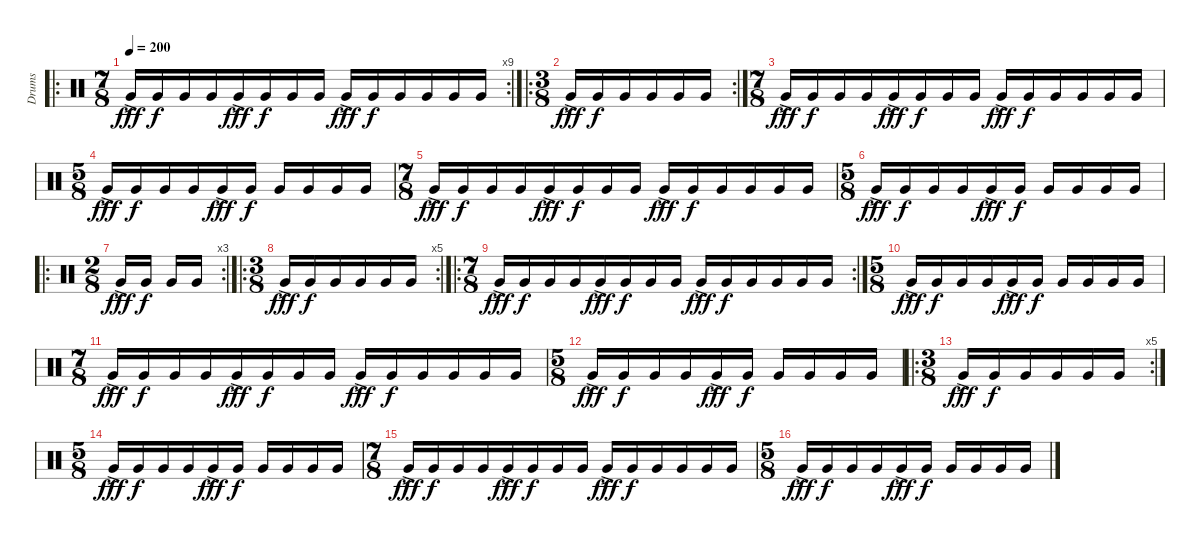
\track ("Drums" "Drums") {instrument percussion}
\staff {score}
\articulation defaults
\ro
\rc 9
\ts (7 8)
\tempo 200
\clef neutral
\ks c "Very Low Tom (hit)"{ac}.16{dy fff} "Very Low Tom (hit)".16{dy f} "Very Low Tom (hit)".16 "Very Low Tom (hit)".16 "Very Low Tom (hit)"{ac}.16{dy fff} "Very Low Tom (hit)".16{dy f} "Very Low Tom (hit)".16 "Very Low Tom (hit)".16 "Very Low Tom (hit)"{ac}.16{dy fff} "Very Low Tom (hit)".16{dy f} "Very Low Tom (hit)".16 "Very Low Tom (hit)".16 "Very Low Tom (hit)".16 "Very Low Tom (hit)".16
|
\ro
\rc 2
\ts (3 8)
"Very Low Tom (hit)"{ac}.16{dy fff} "Very Low Tom (hit)".16{dy f} "Very Low Tom (hit)".16 "Very Low Tom (hit)".16 "Very Low Tom (hit)".16 "Very Low Tom (hit)".16 |
\ts (7 8)
"Very Low Tom (hit)"{ac}.16{dy fff} "Very Low Tom (hit)".16{dy f} "Very Low Tom (hit)".16 "Very Low Tom (hit)".16 "Very Low Tom (hit)"{ac}.16{dy fff} "Very Low Tom (hit)".16{dy f} "Very Low Tom (hit)".16 "Very Low Tom (hit)".16 "Very Low Tom (hit)"{ac}.16{dy fff} "Very Low Tom (hit)".16{dy f} "Very Low Tom (hit)".16 "Very Low Tom (hit)".16 "Very Low Tom (hit)".16 "Very Low Tom (hit)".16 |
\ts (5 8)
"Very Low Tom (hit)"{ac}.16{dy fff} "Very Low Tom (hit)".16{dy f} "Very Low Tom (hit)".16 "Very Low Tom (hit)".16 "Very Low Tom (hit)"{ac}.16{dy fff} "Very Low Tom (hit)".16{dy f} "Very Low Tom (hit)".16 "Very Low Tom (hit)".16 "Very Low Tom (hit)".16 "Very Low Tom (hit)".16 |
\ts (7 8)
"Very Low Tom (hit)"{ac}.16{dy fff} "Very Low Tom (hit)".16{dy f} "Very Low Tom (hit)".16 "Very Low Tom (hit)".16 "Very Low Tom (hit)"{ac}.16{dy fff} "Very Low Tom (hit)".16{dy f} "Very Low Tom (hit)".16 "Very Low Tom (hit)".16 "Very Low Tom (hit)"{ac}.16{dy fff} "Very Low Tom (hit)".16{dy f} "Very Low Tom (hit)".16 "Very Low Tom (hit)".16 "Very Low Tom (hit)".16 "Very Low Tom (hit)".16 |
\ts (5 8)
"Very Low Tom (hit)"{ac}.16{dy fff} "Very Low Tom (hit)".16{dy f} "Very Low Tom (hit)".16 "Very Low Tom (hit)".16 "Very Low Tom (hit)"{ac}.16{dy fff} "Very Low Tom (hit)".16{dy f} "Very Low Tom (hit)".16 "Very Low Tom (hit)".16 "Very Low Tom (hit)".16 "Very Low Tom (hit)".16 |
\ro
\rc 3
\ts (2 8)
"Very Low Tom (hit)"{ac}.16{dy fff} "Very Low Tom (hit)".16{dy f} "Very Low Tom (hit)".16 "Very Low Tom (hit)".16 |
\ro
\rc 5
\ts (3 8)
"Very Low Tom (hit)"{ac}.16{dy fff} "Very Low Tom (hit)".16{dy f} "Very Low Tom (hit)".16 "Very Low Tom (hit)".16 "Very Low Tom (hit)".16 "Very Low Tom (hit)".16 |
\ro
\rc 2
\ts (7 8)
"Very Low Tom (hit)"{ac}.16{dy fff} "Very Low Tom (hit)".16{dy f} "Very Low Tom (hit)".16 "Very Low Tom (hit)".16 "Very Low Tom (hit)"{ac}.16{dy fff} "Very Low Tom (hit)".16{dy f} "Very Low Tom (hit)".16 "Very Low Tom (hit)".16 "Very Low Tom (hit)"{ac}.16{dy fff} "Very Low Tom (hit)".16{dy f} "Very Low Tom (hit)".16 "Very Low Tom (hit)".16 "Very Low Tom (hit)".16 "Very Low Tom (hit)".16 |
\ts (5 8)
"Very Low Tom (hit)"{ac}.16{dy fff} "Very Low Tom (hit)".16{dy f} "Very Low Tom (hit)".16 "Very Low Tom (hit)".16 "Very Low Tom (hit)"{ac}.16{dy fff} "Very Low Tom (hit)".16{dy f} "Very Low Tom (hit)".16 "Very Low Tom (hit)".16 "Very Low Tom (hit)".16 "Very Low Tom (hit)".16 |
\ts (7 8)
"Very Low Tom (hit)"{ac}.16{dy fff} "Very Low Tom (hit)".16{dy f} "Very Low Tom (hit)".16 "Very Low Tom (hit)".16 "Very Low Tom (hit)"{ac}.16{dy fff} "Very Low Tom (hit)".16{dy f} "Very Low Tom (hit)".16 "Very Low Tom (hit)".16 "Very Low Tom (hit)"{ac}.16{dy fff} "Very Low Tom (hit)".16{dy f} "Very Low Tom (hit)".16 "Very Low Tom (hit)".16 "Very Low Tom (hit)".16 "Very Low Tom (hit)".16 |
\ts (5 8)
"Very Low Tom (hit)"{ac}.16{dy fff} "Very Low Tom (hit)".16{dy f} "Very Low Tom (hit)".16 "Very Low Tom (hit)".16 "Very Low Tom (hit)"{ac}.16{dy fff} "Very Low Tom (hit)".16{dy f} "Very Low Tom (hit)".16 "Very Low Tom (hit)".16 "Very Low Tom (hit)".16 "Very Low Tom (hit)".16 |
\ro
\rc 5
\ts (3 8)
"Very Low Tom (hit)"{ac}.16{dy fff} "Very Low Tom (hit)".16{dy f} "Very Low Tom (hit)".16 "Very Low Tom (hit)".16 "Very Low Tom (hit)".16 "Very Low Tom (hit)".16 |
\ts (5 8)
"Very Low Tom (hit)"{ac}.16{dy fff} "Very Low Tom (hit)".16{dy f} "Very Low Tom (hit)".16 "Very Low Tom (hit)".16 "Very Low Tom (hit)"{ac}.16{dy fff} "Very Low Tom (hit)".16{dy f} "Very Low Tom (hit)".16 "Very Low Tom (hit)".16 "Very Low Tom (hit)".16 "Very Low Tom (hit)".16 |
\ts (7 8)
"Very Low Tom (hit)"{ac}.16{dy fff} "Very Low Tom (hit)".16{dy f} "Very Low Tom (hit)".16 "Very Low Tom (hit)".16 "Very Low Tom (hit)"{ac}.16{dy fff} "Very Low Tom (hit)".16{dy f} "Very Low Tom (hit)".16 "Very Low Tom (hit)".16 "Very Low Tom (hit)"{ac}.16{dy fff} "Very Low Tom (hit)".16{dy f} "Very Low Tom (hit)".16 "Very Low Tom (hit)".16 "Very Low Tom (hit)".16 "Very Low Tom (hit)".16 |
\ts (5 8)
"Very Low Tom (hit)"{ac}.16{dy fff} "Very Low Tom (hit)".16{dy f} "Very Low Tom (hit)".16 "Very Low Tom (hit)".16 "Very Low Tom (hit)"{ac}.16{dy fff} "Very Low Tom (hit)".16{dy f} "Very Low Tom (hit)".16 "Very Low Tom (hit)".16 "Very Low Tom (hit)".16 "Very Low Tom (hit)".16
